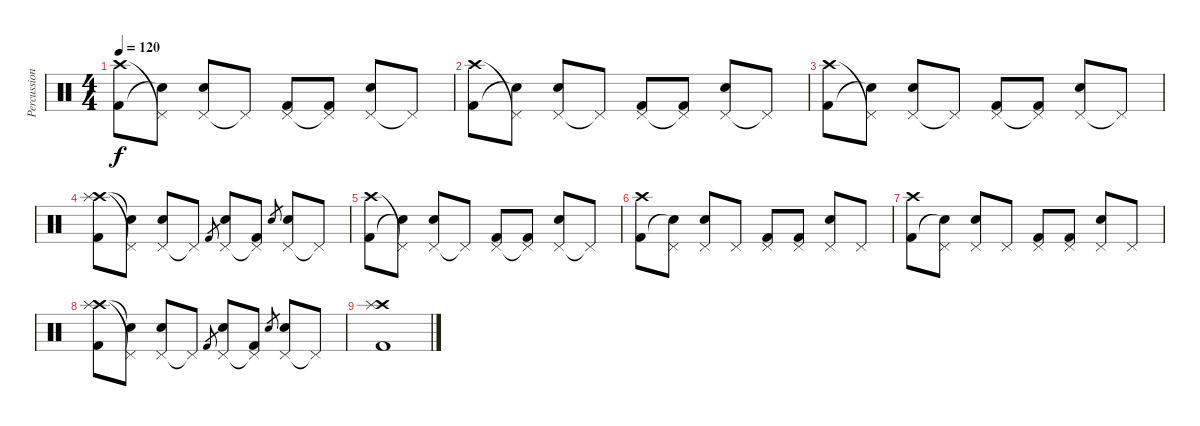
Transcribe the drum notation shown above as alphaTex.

\track ("Percussion" "Percussion") {instrument percussion}
\staff {score}
\articulation defaults
\ts (4 4)
\tempo 120
\clef neutral
\ks c
("Crash high (hit)" "Kick (hit) 2").8{dy f} ("Pedal Hi-Hat (hit)"{t} "Snare (hit)"{t}).8 ("Pedal Hi-Hat (hit)" "Electric Snare (hit)").8 "Pedal Hi-Hat (hit)"{t}.8 ("Pedal Hi-Hat (hit)" "Kick (hit) 2").8 ("Pedal Hi-Hat (hit)"{t} "Kick (hit) 2").8 ("Pedal Hi-Hat (hit)" "Electric Snare (hit)").8 "Pedal Hi-Hat (hit)"{t}.8 |
("Crash high (hit)" "Kick (hit) 2").8 ("Pedal Hi-Hat (hit)"{t} "Snare (hit)"{t}).8 ("Pedal Hi-Hat (hit)" "Electric Snare (hit)").8 "Pedal Hi-Hat (hit)"{t}.8 ("Pedal Hi-Hat (hit)" "Kick (hit) 2").8 ("Pedal Hi-Hat (hit)"{t} "Kick (hit) 2").8 ("Pedal Hi-Hat (hit)" "Electric Snare (hit)").8 "Pedal Hi-Hat (hit)"{t}.8 |
("Crash high (hit)" "Kick (hit) 2").8 ("Pedal Hi-Hat (hit)"{t} "Snare (hit)"{t}).8 ("Pedal Hi-Hat (hit)" "Electric Snare (hit)").8 "Pedal Hi-Hat (hit)"{t}.8 ("Pedal Hi-Hat (hit)" "Kick (hit) 2").8 ("Pedal Hi-Hat (hit)"{t} "Kick (hit) 2").8 ("Pedal Hi-Hat (hit)" "Electric Snare (hit)").8 "Pedal Hi-Hat (hit)"{t}.8 |
("Crash high (hit)" "Splash (hit)" "Kick (hit) 2").8 ("Pedal Hi-Hat (hit)"{t} "Snare (hit)"{t}).8 ("Pedal Hi-Hat (hit)" "Electric Snare (hit)").8 "Pedal Hi-Hat (hit)"{t}.8 "Kick (hit) 2".8{gr} ("Pedal Hi-Hat (hit)" "Electric Snare (hit)").8 ("Pedal Hi-Hat (hit)"{t} "Kick (hit) 2").8 "Electric Snare (hit)".8{gr} ("Pedal Hi-Hat (hit)" "Electric Snare (hit)").8 "Pedal Hi-Hat (hit)"{t}.8 |
("Crash high (hit)" "Kick (hit) 2").8 ("Pedal Hi-Hat (hit)"{t} "Snare (hit)"{t}).8 ("Pedal Hi-Hat (hit)" "Electric Snare (hit)").8 "Pedal Hi-Hat (hit)"{t}.8 ("Pedal Hi-Hat (hit)" "Kick (hit) 2").8 ("Pedal Hi-Hat (hit)"{t} "Kick (hit) 2").8 ("Pedal Hi-Hat (hit)" "Electric Snare (hit)").8 "Pedal Hi-Hat (hit)"{t}.8 |
("Crash high (hit)" "Kick (hit) 2").8 ("Pedal Hi-Hat (hit)" "Snare (hit)"{t}).8 ("Pedal Hi-Hat (hit)" "Electric Snare (hit)").8 "Pedal Hi-Hat (hit)".8 ("Pedal Hi-Hat (hit)" "Kick (hit) 2").8 ("Pedal Hi-Hat (hit)" "Kick (hit) 2").8 ("Pedal Hi-Hat (hit)" "Electric Snare (hit)").8 "Pedal Hi-Hat (hit)".8 |
("Crash high (hit)" "Kick (hit) 2").8 ("Pedal Hi-Hat (hit)" "Snare (hit)"{t}).8 ("Pedal Hi-Hat (hit)" "Electric Snare (hit)").8 "Pedal Hi-Hat (hit)".8 ("Pedal Hi-Hat (hit)" "Kick (hit) 2").8 ("Pedal Hi-Hat (hit)" "Kick (hit) 2").8 ("Pedal Hi-Hat (hit)" "Electric Snare (hit)").8 "Pedal Hi-Hat (hit)".8 |
("Crash high (hit)" "Splash (hit)" "Kick (hit) 2").8 ("Pedal Hi-Hat (hit)"{t} "Snare (hit)"{t}).8 ("Pedal Hi-Hat (hit)" "Electric Snare (hit)").8 "Pedal Hi-Hat (hit)"{t}.8 "Kick (hit) 2".8{gr} ("Pedal Hi-Hat (hit)" "Electric Snare (hit)").8 ("Pedal Hi-Hat (hit)"{t} "Kick (hit) 2").8 "Electric Snare (hit)".8{gr} ("Pedal Hi-Hat (hit)" "Electric Snare (hit)").8 "Pedal Hi-Hat (hit)"{t}.8 |
("Crash high (hit)" "Splash (hit)" "Kick (hit) 2").1
